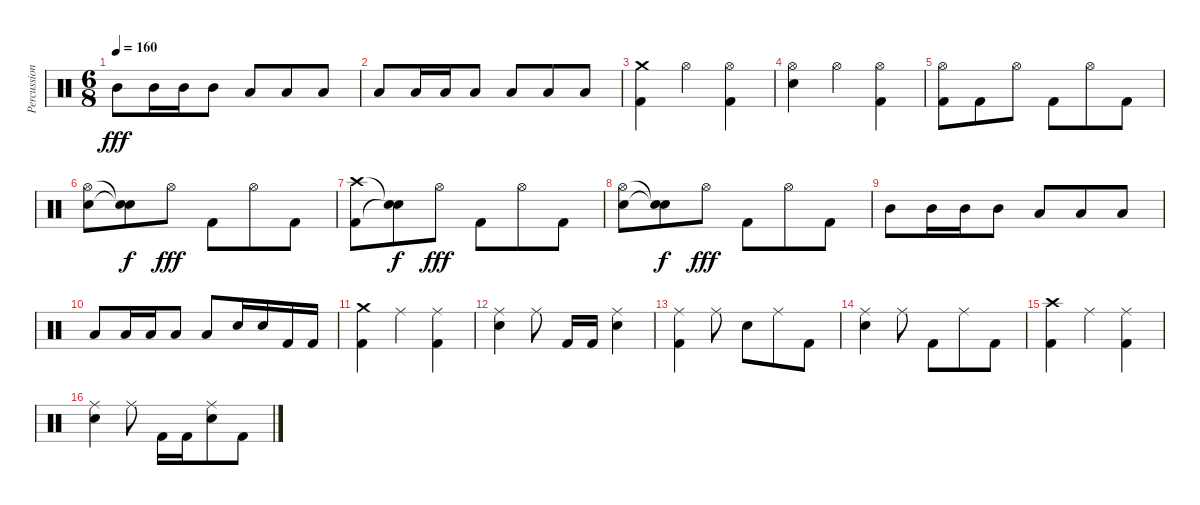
\track ("Percussion" "Percussion") {instrument percussion}
\staff {score}
\articulation defaults
\ts (6 8)
\tempo 160
\clef neutral
\ks c "Mid Tom (hit)".8{dy fff} "Mid Tom (hit)".16 "Mid Tom (hit)".16 "Mid Tom (hit)".8 "Low Tom (hit)".8 "Low Tom (hit)".8 "Low Tom (hit)".8
|
"Low Tom (hit)".8 "Low Tom (hit)".16 "Low Tom (hit)".16 "Low Tom (hit)".8 "Low Floor Tom (hit)".8 "Low Floor Tom (hit)".8 "Low Floor Tom (hit)".8 |
("Crash medium (hit)" "Kick (hit) 2").4 "Hi-Hat (open)".4 ("Hi-Hat (open)" "Kick (hit) 2").4 |
("Hi-Hat (open)" "Snare (hit) 2").4 "Hi-Hat (open)".4 ("Hi-Hat (open)" "Kick (hit) 2").4 |
("Hi-Hat (open)" "Kick (hit) 2").8 "Kick (hit) 2".8 "Hi-Hat (open)".8 "Kick (hit) 2".8 "Hi-Hat (open)".8 "Kick (hit) 2".8 |
("Hi-Hat (open)" "Snare (hit) 2").8 ("Snare (hit)"{t} "Snare (hit)"{t}).8{dy f} "Hi-Hat (open)".8{dy fff} "Kick (hit) 2".8 "Hi-Hat (open)".8 "Kick (hit) 2".8 |
("Crash high (hit)" "Kick (hit) 2").8 ("Snare (hit)"{t} "Snare (hit)"{t}).8{dy f} "Hi-Hat (open)".8{dy fff} "Kick (hit) 2".8 "Hi-Hat (open)".8 "Kick (hit) 2".8 |
("Hi-Hat (open)" "Snare (hit) 2").8 ("Snare (hit)"{t} "Snare (hit)"{t}).8{dy f} "Hi-Hat (open)".8{dy fff} "Kick (hit) 2".8 "Hi-Hat (open)".8 "Kick (hit) 2".8 |
"Mid Tom (hit)".8 "Mid Tom (hit)".16 "Mid Tom (hit)".16 "Mid Tom (hit)".8 "Low Tom (hit)".8 "Low Tom (hit)".8 "Low Tom (hit)".8 |
"Low Tom (hit)".8 "Low Tom (hit)".16 "Low Tom (hit)".16 "Low Tom (hit)".8 "Low Floor Tom (hit)".8 "Snare (hit) 2".16 "Snare (hit) 2".16 "Kick (hit) 2".16 "Kick (hit) 2".16 |
("Crash medium (hit)" "Kick (hit) 2").4 "Ride (middle)".4 ("Ride (middle)" "Kick (hit) 2").4 |
("Ride (middle)" "Snare (hit) 2").4 "Ride (middle)".8 "Kick (hit) 2".16 "Kick (hit) 2".16 ("Ride (middle)" "Snare (hit) 2").4 |
("Ride (middle)" "Kick (hit) 2").4 "Ride (middle)".8 "Snare (hit) 2".8 "Ride (middle)".8 "Kick (hit) 2".8 |
("Ride (middle)" "Snare (hit) 2").4 "Ride (middle)".8 "Kick (hit) 2".8 "Ride (middle)".8 "Kick (hit) 2".8 |
("Crash high (hit)" "Kick (hit) 2").4 "Ride (middle)".4 ("Ride (middle)" "Kick (hit) 2").4 |
("Ride (middle)" "Snare (hit) 2").4 "Ride (middle)".8 "Kick (hit) 2".16 "Kick (hit) 2".16 ("Ride (middle)" "Snare (hit) 2").8 "Kick (hit) 2".8
